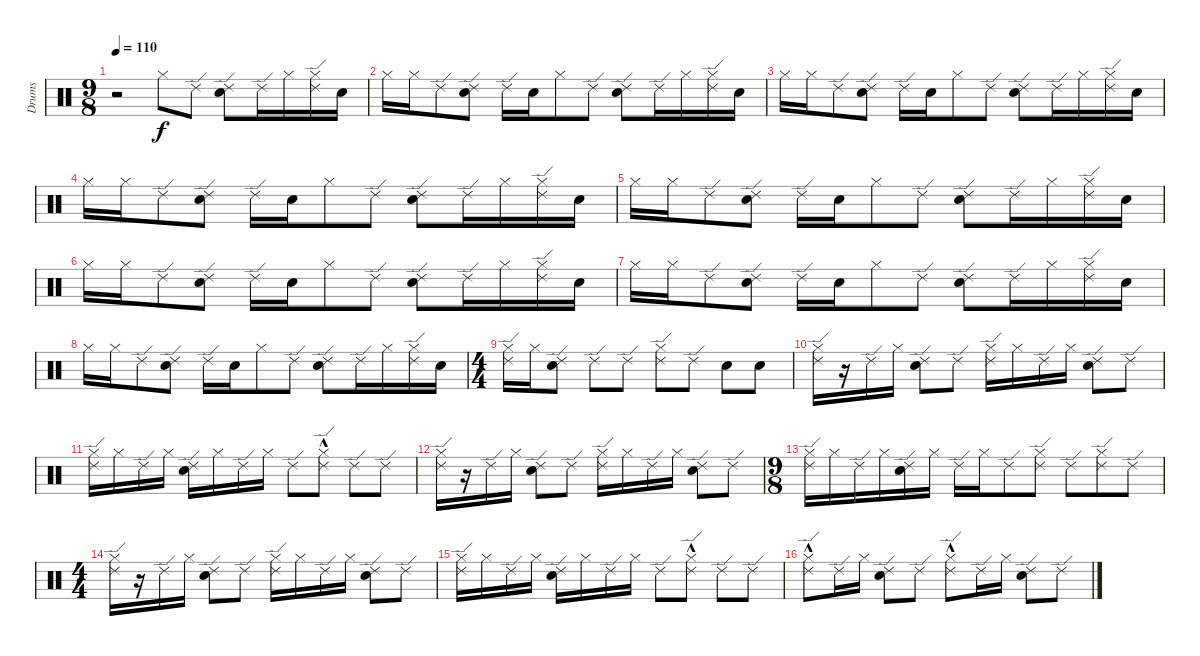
\track ("Drums" "Drums") {instrument percussion}
\staff {score}
\articulation defaults
\ts (9 8)
\tempo 110
\clef neutral
\ks c
r.2{dy f} "Hi-Hat (closed)".8 "Ride (edge) 2".8 ("Snare (hit) 2" "Ride (edge) 2").8 "Ride (edge) 2".16 "Hi-Hat (closed)".16 ("Hi-Hat (closed)" "Ride (edge) 2").16 "Snare (hit) 2".16 |
"Hi-Hat (closed)".16 "Hi-Hat (closed)".16 "Ride (edge) 2".8 ("Snare (hit) 2" "Ride (edge) 2").8 "Ride (edge) 2".16 "Snare (hit) 2".16 "Hi-Hat (closed)".8 "Ride (edge) 2".8 ("Snare (hit) 2" "Ride (edge) 2").8 "Ride (edge) 2".16 "Hi-Hat (closed)".16 ("Hi-Hat (closed)" "Ride (edge) 2").16 "Snare (hit) 2".16 |
"Hi-Hat (closed)".16 "Hi-Hat (closed)".16 "Ride (edge) 2".8 ("Snare (hit) 2" "Ride (edge) 2").8 "Ride (edge) 2".16 "Snare (hit) 2".16 "Hi-Hat (closed)".8 "Ride (edge) 2".8 ("Snare (hit) 2" "Ride (edge) 2").8 "Ride (edge) 2".16 "Hi-Hat (closed)".16 ("Hi-Hat (closed)" "Ride (edge) 2").16 "Snare (hit) 2".16 |
"Hi-Hat (closed)".16 "Hi-Hat (closed)".16 "Ride (edge) 2".8 ("Snare (hit) 2" "Ride (edge) 2").8 "Ride (edge) 2".16 "Snare (hit) 2".16 "Hi-Hat (closed)".8 "Ride (edge) 2".8 ("Snare (hit) 2" "Ride (edge) 2").8 "Ride (edge) 2".16 "Hi-Hat (closed)".16 ("Hi-Hat (closed)" "Ride (edge) 2").16 "Snare (hit) 2".16 |
"Hi-Hat (closed)".16 "Hi-Hat (closed)".16 "Ride (edge) 2".8 ("Snare (hit) 2" "Ride (edge) 2").8 "Ride (edge) 2".16 "Snare (hit) 2".16 "Hi-Hat (closed)".8 "Ride (edge) 2".8 ("Snare (hit) 2" "Ride (edge) 2").8 "Ride (edge) 2".16 "Hi-Hat (closed)".16 ("Hi-Hat (closed)" "Ride (edge) 2").16 "Snare (hit) 2".16 |
"Hi-Hat (closed)".16 "Hi-Hat (closed)".16 "Ride (edge) 2".8 ("Snare (hit) 2" "Ride (edge) 2").8 "Ride (edge) 2".16 "Snare (hit) 2".16 "Hi-Hat (closed)".8 "Ride (edge) 2".8 ("Snare (hit) 2" "Ride (edge) 2").8 "Ride (edge) 2".16 "Hi-Hat (closed)".16 ("Hi-Hat (closed)" "Ride (edge) 2").16 "Snare (hit) 2".16 |
"Hi-Hat (closed)".16 "Hi-Hat (closed)".16 "Ride (edge) 2".8 ("Snare (hit) 2" "Ride (edge) 2").8 "Ride (edge) 2".16 "Snare (hit) 2".16 "Hi-Hat (closed)".8 "Ride (edge) 2".8 ("Snare (hit) 2" "Ride (edge) 2").8 "Ride (edge) 2".16 "Hi-Hat (closed)".16 ("Hi-Hat (closed)" "Ride (edge) 2").16 "Snare (hit) 2".16 |
"Hi-Hat (closed)".16 "Hi-Hat (closed)".16 "Ride (edge) 2".8 ("Snare (hit) 2" "Ride (edge) 2").8 "Ride (edge) 2".16 "Snare (hit) 2".16 "Hi-Hat (closed)".8 "Ride (edge) 2".8 ("Snare (hit) 2" "Ride (edge) 2").8 "Ride (edge) 2".16 "Hi-Hat (closed)".16 ("Hi-Hat (closed)" "Ride (edge) 2").16 "Snare (hit) 2".16 |
\ts (4 4)
("Hi-Hat (closed)" "Ride (edge) 2").16 "Hi-Hat (closed)".16 ("Snare (hit) 2" "Ride (edge) 2").8 "Ride (edge) 2".8 "Ride (edge) 2".8 ("Hi-Hat (closed)" "Ride (edge) 2").8 "Ride (edge) 2".8 "Snare (hit) 2".8 "Snare (hit) 2".8 |
("Hi-Hat (closed)" "Ride (edge) 2").16 r.16 "Ride (edge) 2".16 "Hi-Hat (closed)".16 ("Snare (hit) 2" "Ride (edge) 2").8 "Ride (edge) 2".8 ("Hi-Hat (closed)" "Ride (edge) 2").16 "Hi-Hat (closed)".16 "Ride (edge) 2".16 "Hi-Hat (closed)".16 ("Snare (hit) 2" "Ride (edge) 2").8 "Ride (edge) 2".8 |
("Hi-Hat (closed)" "Ride (edge) 2").16 "Hi-Hat (closed)".16 "Ride (edge) 2".16 "Hi-Hat (closed)".16 ("Snare (hit) 2" "Ride (edge) 2").16 "Hi-Hat (closed)".16 "Ride (edge) 2".16 "Hi-Hat (closed)".16 "Ride (edge) 2".8 ("Hi-Hat (closed)"{hac} "Ride (edge) 2").8 "Ride (edge) 2".8 "Ride (edge) 2".8 |
("Hi-Hat (closed)" "Ride (edge) 2").16 r.16 "Ride (edge) 2".16 "Hi-Hat (closed)".16 ("Snare (hit) 2" "Ride (edge) 2").8 "Ride (edge) 2".8 ("Hi-Hat (closed)" "Ride (edge) 2").16 "Hi-Hat (closed)".16 "Ride (edge) 2".16 "Hi-Hat (closed)".16 ("Snare (hit) 2" "Ride (edge) 2").8 "Ride (edge) 2".8 |
\ts (9 8)
("Hi-Hat (closed)" "Ride (edge) 2").16 "Hi-Hat (closed)".16 "Ride (edge) 2".16 "Hi-Hat (closed)".16 ("Snare (hit) 2" "Ride (edge) 2").16 "Hi-Hat (closed)".16 "Ride (edge) 2".16 "Hi-Hat (closed)".16 "Ride (edge) 2".8 ("Hi-Hat (closed)" "Ride (edge) 2").8 "Ride (edge) 2".8 ("Hi-Hat (closed)" "Ride (edge) 2").8 "Ride (edge) 2".8 |
\ts (4 4)
("Hi-Hat (closed)" "Ride (edge) 2").16 r.16 "Ride (edge) 2".16 "Hi-Hat (closed)".16 ("Snare (hit) 2" "Ride (edge) 2").8 "Ride (edge) 2".8 ("Hi-Hat (closed)" "Ride (edge) 2").16 "Hi-Hat (closed)".16 "Ride (edge) 2".16 "Hi-Hat (closed)".16 ("Snare (hit) 2" "Ride (edge) 2").8 "Ride (edge) 2".8 |
("Hi-Hat (closed)" "Ride (edge) 2").16 "Hi-Hat (closed)".16 "Ride (edge) 2".16 "Hi-Hat (closed)".16 ("Snare (hit) 2" "Ride (edge) 2").16 "Hi-Hat (closed)".16 "Ride (edge) 2".16 "Hi-Hat (closed)".16 "Ride (edge) 2".8 ("Hi-Hat (closed)"{hac} "Ride (edge) 2").8 "Ride (edge) 2".8 "Ride (edge) 2".8 |
("Hi-Hat (closed)"{hac} "Ride (edge) 2").8 "Ride (edge) 2".16 "Hi-Hat (closed)".16 ("Snare (hit) 2" "Ride (edge) 2").8 "Ride (edge) 2".8 ("Hi-Hat (closed)"{hac} "Ride (edge) 2").8 "Ride (edge) 2".16 "Hi-Hat (closed)".16 ("Snare (hit) 2" "Ride (edge) 2").8 "Ride (edge) 2".8
